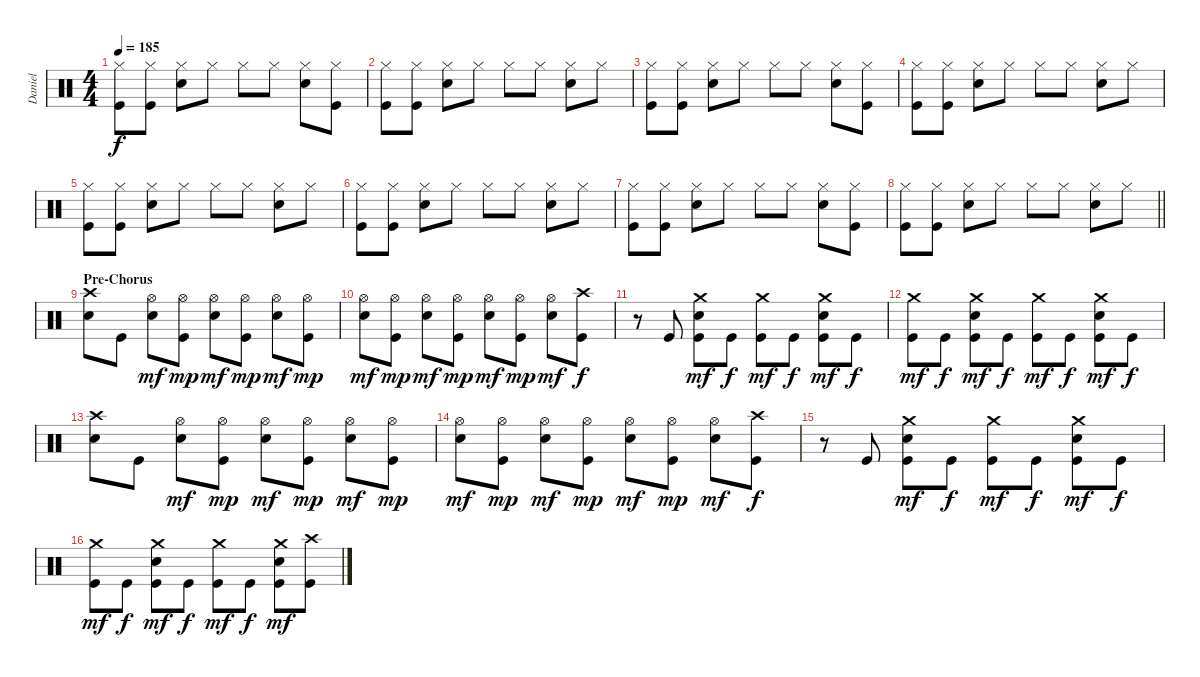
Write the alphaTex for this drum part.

\track ("Daniel" "Daniel") {instrument percussion}
\staff {score}
\articulation defaults
\ts (4 4)
\tempo 185
\clef neutral
\ks c
("Kick (hit)" "Hi-Hat (closed)").8{dy f} ("Kick (hit)" "Hi-Hat (closed)").8 ("Electric Snare (hit)" "Hi-Hat (closed)").8 "Hi-Hat (closed)".8 "Hi-Hat (closed)".8 "Hi-Hat (closed)".8 ("Electric Snare (hit)" "Hi-Hat (closed)").8 ("Kick (hit)" "Hi-Hat (closed)").8 |
("Kick (hit)" "Hi-Hat (closed)").8 ("Kick (hit)" "Hi-Hat (closed)").8 ("Electric Snare (hit)" "Hi-Hat (closed)").8 "Hi-Hat (closed)".8 "Hi-Hat (closed)".8 "Hi-Hat (closed)".8 ("Electric Snare (hit)" "Hi-Hat (closed)").8 "Hi-Hat (closed)".8 |
("Kick (hit)" "Hi-Hat (closed)").8 ("Kick (hit)" "Hi-Hat (closed)").8 ("Electric Snare (hit)" "Hi-Hat (closed)").8 "Hi-Hat (closed)".8 "Hi-Hat (closed)".8 "Hi-Hat (closed)".8 ("Electric Snare (hit)" "Hi-Hat (closed)").8 ("Kick (hit)" "Hi-Hat (closed)").8 |
("Kick (hit)" "Hi-Hat (closed)").8 ("Kick (hit)" "Hi-Hat (closed)").8 ("Electric Snare (hit)" "Hi-Hat (closed)").8 "Hi-Hat (closed)".8 "Hi-Hat (closed)".8 "Hi-Hat (closed)".8 ("Electric Snare (hit)" "Hi-Hat (closed)").8 "Hi-Hat (closed)".8 |
("Kick (hit)" "Hi-Hat (closed)").8 ("Kick (hit)" "Hi-Hat (closed)").8 ("Electric Snare (hit)" "Hi-Hat (closed)").8 "Hi-Hat (closed)".8 "Hi-Hat (closed)".8 "Hi-Hat (closed)".8 ("Electric Snare (hit)" "Hi-Hat (closed)").8 "Hi-Hat (closed)".8 |
("Kick (hit)" "Hi-Hat (closed)").8 ("Kick (hit)" "Hi-Hat (closed)").8 ("Electric Snare (hit)" "Hi-Hat (closed)").8 "Hi-Hat (closed)".8 "Hi-Hat (closed)".8 "Hi-Hat (closed)".8 ("Electric Snare (hit)" "Hi-Hat (closed)").8 "Hi-Hat (closed)".8 |
("Kick (hit)" "Hi-Hat (closed)").8 ("Kick (hit)" "Hi-Hat (closed)").8 ("Electric Snare (hit)" "Hi-Hat (closed)").8 "Hi-Hat (closed)".8 "Hi-Hat (closed)".8 "Hi-Hat (closed)".8 ("Electric Snare (hit)" "Hi-Hat (closed)").8 ("Kick (hit)" "Hi-Hat (closed)").8 |
\barLineRight lightlight
("Kick (hit)" "Hi-Hat (closed)").8 ("Kick (hit)" "Hi-Hat (closed)").8 ("Electric Snare (hit)" "Hi-Hat (closed)").8 "Hi-Hat (closed)".8 "Hi-Hat (closed)".8 "Hi-Hat (closed)".8 ("Electric Snare (hit)" "Hi-Hat (closed)").8 "Hi-Hat (closed)".8 |
\section ("" "Pre-Chorus")
("Electric Snare (hit)" "Crash high (hit)").8 "Kick (hit)".8 ("Electric Snare (hit)" "Hi-Hat (open)").8{dy mf} ("Kick (hit)" "Hi-Hat (open)").8{dy mp} ("Electric Snare (hit)" "Hi-Hat (open)").8{dy mf} ("Kick (hit)" "Hi-Hat (open)").8{dy mp} ("Electric Snare (hit)" "Hi-Hat (open)").8{dy mf} ("Kick (hit)" "Hi-Hat (open)").8{dy mp} |
("Electric Snare (hit)" "Hi-Hat (open)").8{dy mf} ("Kick (hit)" "Hi-Hat (open)").8{dy mp} ("Electric Snare (hit)" "Hi-Hat (open)").8{dy mf} ("Kick (hit)" "Hi-Hat (open)").8{dy mp} ("Electric Snare (hit)" "Hi-Hat (open)").8{dy mf} ("Kick (hit)" "Hi-Hat (open)").8{dy mp} ("Electric Snare (hit)" "Hi-Hat (open)").8{dy mf} ("Kick (hit)" "Crash high (hit)").8{dy f} |
r.8 "Kick (hit)".8 ("Kick (hit)" "Electric Snare (hit)" "Crash medium (hit)").8{dy mf} "Kick (hit)".8{dy f} ("Kick (hit)" "Crash medium (hit)").8{dy mf} "Kick (hit)".8{dy f} ("Kick (hit)" "Electric Snare (hit)" "Crash medium (hit)").8{dy mf} "Kick (hit)".8{dy f} |
("Kick (hit)" "Crash medium (hit)").8{dy mf} "Kick (hit)".8{dy f} ("Kick (hit)" "Electric Snare (hit)" "Crash medium (hit)").8{dy mf} "Kick (hit)".8{dy f} ("Kick (hit)" "Crash medium (hit)").8{dy mf} "Kick (hit)".8{dy f} ("Kick (hit)" "Electric Snare (hit)" "Crash medium (hit)").8{dy mf} "Kick (hit)".8{dy f} |
("Electric Snare (hit)" "Crash high (hit)").8 "Kick (hit)".8 ("Electric Snare (hit)" "Hi-Hat (open)").8{dy mf} ("Kick (hit)" "Hi-Hat (open)").8{dy mp} ("Electric Snare (hit)" "Hi-Hat (open)").8{dy mf} ("Kick (hit)" "Hi-Hat (open)").8{dy mp} ("Electric Snare (hit)" "Hi-Hat (open)").8{dy mf} ("Kick (hit)" "Hi-Hat (open)").8{dy mp} |
("Electric Snare (hit)" "Hi-Hat (open)").8{dy mf} ("Kick (hit)" "Hi-Hat (open)").8{dy mp} ("Electric Snare (hit)" "Hi-Hat (open)").8{dy mf} ("Kick (hit)" "Hi-Hat (open)").8{dy mp} ("Electric Snare (hit)" "Hi-Hat (open)").8{dy mf} ("Kick (hit)" "Hi-Hat (open)").8{dy mp} ("Electric Snare (hit)" "Hi-Hat (open)").8{dy mf} ("Kick (hit)" "Crash high (hit)").8{dy f} |
r.8 "Kick (hit)".8 ("Kick (hit)" "Electric Snare (hit)" "Crash medium (hit)").8{dy mf} "Kick (hit)".8{dy f} ("Kick (hit)" "Crash medium (hit)").8{dy mf} "Kick (hit)".8{dy f} ("Kick (hit)" "Electric Snare (hit)" "Crash medium (hit)").8{dy mf} "Kick (hit)".8{dy f} |
("Kick (hit)" "Crash medium (hit)").8{dy mf} "Kick (hit)".8{dy f} ("Kick (hit)" "Electric Snare (hit)" "Crash medium (hit)").8{dy mf} "Kick (hit)".8{dy f} ("Kick (hit)" "Crash medium (hit)").8{dy mf} "Kick (hit)".8{dy f} ("Kick (hit)" "Electric Snare (hit)" "Crash medium (hit)").8{dy mf} ("Kick (hit)" "Crash high (hit)").8
